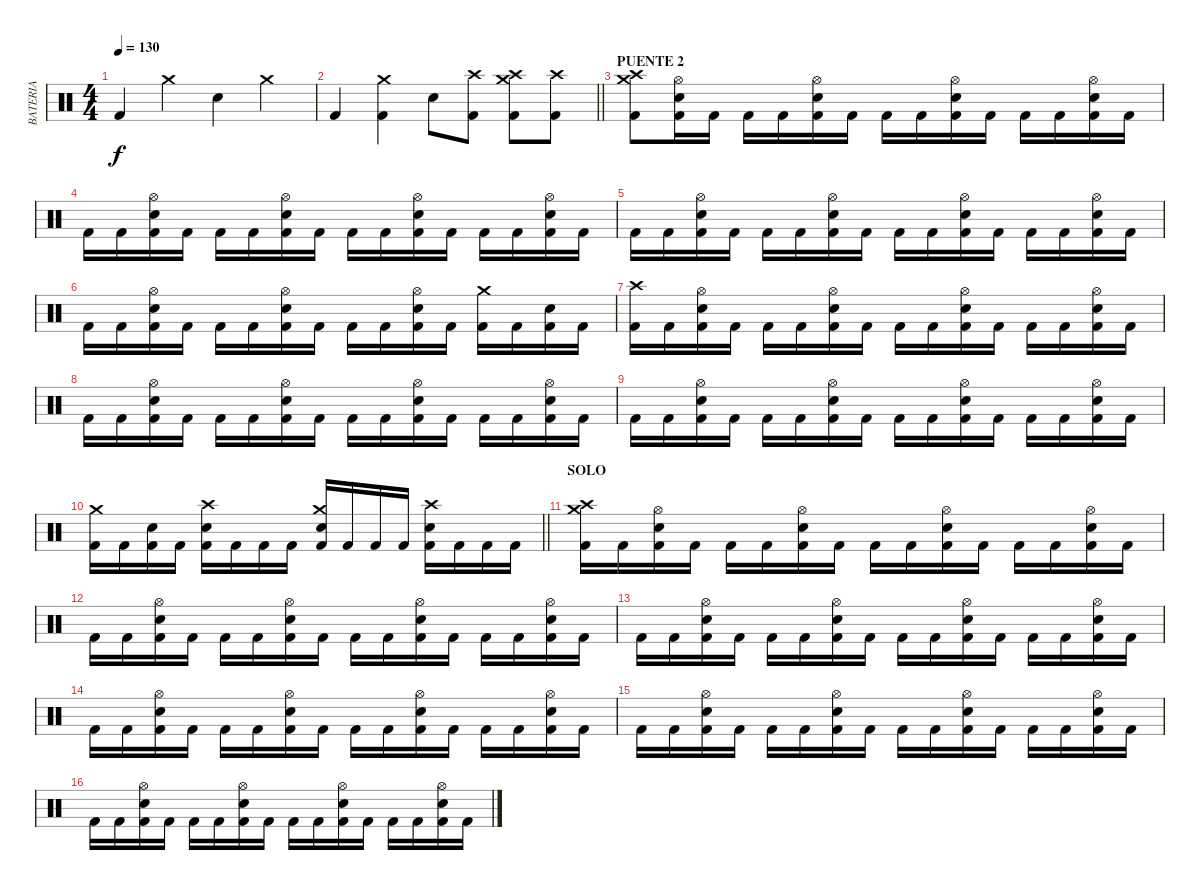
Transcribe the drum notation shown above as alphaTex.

\track ("BATERIA" "BATERIA") {instrument percussion}
\staff {score}
\articulation defaults
\ts (4 4)
\tempo 130
\clef neutral
\ks c "Kick (hit) 2".4{dy f} "Crash medium (hit)".4 "Electric Snare (hit)".4 "Crash medium (hit)".4
|
\barLineRight lightlight "Kick (hit) 2".4
("Kick (hit) 2" "Crash medium (hit)").4 "Electric Snare (hit)".8 ("Kick (hit) 2" "Crash high (hit)").8 ("Kick (hit) 2" "Crash high (hit)" "Crash medium (hit)").8 ("Kick (hit) 2" "Crash high (hit)").8 |
\section ("" "PUENTE 2")
("Kick (hit) 2" "Crash medium (hit)" "Crash high (hit)").8 ("Kick (hit) 2" "Electric Snare (hit)" "Hi-Hat (open)").16 "Kick (hit) 2".16 "Kick (hit) 2".16 "Kick (hit) 2".16 ("Kick (hit) 2" "Electric Snare (hit)" "Hi-Hat (open)").16 "Kick (hit) 2".16 "Kick (hit) 2".16 "Kick (hit) 2".16 ("Kick (hit) 2" "Electric Snare (hit)" "Hi-Hat (open)").16 "Kick (hit) 2".16 "Kick (hit) 2".16 "Kick (hit) 2".16 ("Kick (hit) 2" "Electric Snare (hit)" "Hi-Hat (open)").16 "Kick (hit) 2".16 |
"Kick (hit) 2".16 "Kick (hit) 2".16 ("Kick (hit) 2" "Electric Snare (hit)" "Hi-Hat (open)").16 "Kick (hit) 2".16 "Kick (hit) 2".16 "Kick (hit) 2".16 ("Kick (hit) 2" "Electric Snare (hit)" "Hi-Hat (open)").16 "Kick (hit) 2".16 "Kick (hit) 2".16 "Kick (hit) 2".16 ("Kick (hit) 2" "Electric Snare (hit)" "Hi-Hat (open)").16 "Kick (hit) 2".16 "Kick (hit) 2".16 "Kick (hit) 2".16 ("Kick (hit) 2" "Electric Snare (hit)" "Hi-Hat (open)").16 "Kick (hit) 2".16 |
"Kick (hit) 2".16 "Kick (hit) 2".16 ("Kick (hit) 2" "Electric Snare (hit)" "Hi-Hat (open)").16 "Kick (hit) 2".16 "Kick (hit) 2".16 "Kick (hit) 2".16 ("Kick (hit) 2" "Electric Snare (hit)" "Hi-Hat (open)").16 "Kick (hit) 2".16 "Kick (hit) 2".16 "Kick (hit) 2".16 ("Kick (hit) 2" "Electric Snare (hit)" "Hi-Hat (open)").16 "Kick (hit) 2".16 "Kick (hit) 2".16 "Kick (hit) 2".16 ("Kick (hit) 2" "Electric Snare (hit)" "Hi-Hat (open)").16 "Kick (hit) 2".16 |
"Kick (hit) 2".16 "Kick (hit) 2".16 ("Kick (hit) 2" "Electric Snare (hit)" "Hi-Hat (open)").16 "Kick (hit) 2".16 "Kick (hit) 2".16 "Kick (hit) 2".16 ("Kick (hit) 2" "Electric Snare (hit)" "Hi-Hat (open)").16 "Kick (hit) 2".16 "Kick (hit) 2".16 "Kick (hit) 2".16 ("Kick (hit) 2" "Electric Snare (hit)" "Hi-Hat (open)").16 "Kick (hit) 2".16 ("Kick (hit) 2" "Crash medium (hit)").16 "Kick (hit) 2".16 ("Kick (hit) 2" "Electric Snare (hit)").16 "Kick (hit) 2".16 |
("Kick (hit) 2" "Crash high (hit)").16 "Kick (hit) 2".16 ("Kick (hit) 2" "Electric Snare (hit)" "Hi-Hat (open)").16 "Kick (hit) 2".16 "Kick (hit) 2".16 "Kick (hit) 2".16 ("Kick (hit) 2" "Electric Snare (hit)" "Hi-Hat (open)").16 "Kick (hit) 2".16 "Kick (hit) 2".16 "Kick (hit) 2".16 ("Kick (hit) 2" "Electric Snare (hit)" "Hi-Hat (open)").16 "Kick (hit) 2".16 "Kick (hit) 2".16 "Kick (hit) 2".16 ("Kick (hit) 2" "Electric Snare (hit)" "Hi-Hat (open)").16 "Kick (hit) 2".16 |
"Kick (hit) 2".16 "Kick (hit) 2".16 ("Kick (hit) 2" "Electric Snare (hit)" "Hi-Hat (open)").16 "Kick (hit) 2".16 "Kick (hit) 2".16 "Kick (hit) 2".16 ("Kick (hit) 2" "Electric Snare (hit)" "Hi-Hat (open)").16 "Kick (hit) 2".16 "Kick (hit) 2".16 "Kick (hit) 2".16 ("Kick (hit) 2" "Electric Snare (hit)" "Hi-Hat (open)").16 "Kick (hit) 2".16 "Kick (hit) 2".16 "Kick (hit) 2".16 ("Kick (hit) 2" "Electric Snare (hit)" "Hi-Hat (open)").16 "Kick (hit) 2".16 |
"Kick (hit) 2".16 "Kick (hit) 2".16 ("Kick (hit) 2" "Electric Snare (hit)" "Hi-Hat (open)").16 "Kick (hit) 2".16 "Kick (hit) 2".16 "Kick (hit) 2".16 ("Kick (hit) 2" "Electric Snare (hit)" "Hi-Hat (open)").16 "Kick (hit) 2".16 "Kick (hit) 2".16 "Kick (hit) 2".16 ("Kick (hit) 2" "Electric Snare (hit)" "Hi-Hat (open)").16 "Kick (hit) 2".16 "Kick (hit) 2".16 "Kick (hit) 2".16 ("Kick (hit) 2" "Electric Snare (hit)" "Hi-Hat (open)").16 "Kick (hit) 2".16 |
\barLineRight lightlight
("Kick (hit) 2" "Crash medium (hit)").16 "Kick (hit) 2".16 ("Kick (hit) 2" "Electric Snare (hit)").16 "Kick (hit) 2".16 ("Kick (hit) 2" "Electric Snare (hit)" "Crash high (hit)").16 "Kick (hit) 2".16 "Kick (hit) 2".16 "Kick (hit) 2".16 ("Kick (hit) 2" "Electric Snare (hit)" "Crash medium (hit)").16 "Kick (hit) 2".16 "Kick (hit) 2".16 "Kick (hit) 2".16 ("Kick (hit) 2" "Electric Snare (hit)" "Crash high (hit)").16 "Kick (hit) 2".16 "Kick (hit) 2".16 "Kick (hit) 2".16 |
\section ("" "SOLO")
("Kick (hit) 2" "Crash high (hit)" "Crash medium (hit)").16 "Kick (hit) 2".16 ("Kick (hit) 2" "Electric Snare (hit)" "Hi-Hat (open)").16 "Kick (hit) 2".16 "Kick (hit) 2".16 "Kick (hit) 2".16 ("Kick (hit) 2" "Electric Snare (hit)" "Hi-Hat (open)").16 "Kick (hit) 2".16 "Kick (hit) 2".16 "Kick (hit) 2".16 ("Kick (hit) 2" "Electric Snare (hit)" "Hi-Hat (open)").16 "Kick (hit) 2".16 "Kick (hit) 2".16 "Kick (hit) 2".16 ("Kick (hit) 2" "Electric Snare (hit)" "Hi-Hat (open)").16 "Kick (hit) 2".16 |
"Kick (hit) 2".16 "Kick (hit) 2".16 ("Kick (hit) 2" "Electric Snare (hit)" "Hi-Hat (open)").16 "Kick (hit) 2".16 "Kick (hit) 2".16 "Kick (hit) 2".16 ("Kick (hit) 2" "Electric Snare (hit)" "Hi-Hat (open)").16 "Kick (hit) 2".16 "Kick (hit) 2".16 "Kick (hit) 2".16 ("Kick (hit) 2" "Electric Snare (hit)" "Hi-Hat (open)").16 "Kick (hit) 2".16 "Kick (hit) 2".16 "Kick (hit) 2".16 ("Kick (hit) 2" "Electric Snare (hit)" "Hi-Hat (open)").16 "Kick (hit) 2".16 |
"Kick (hit) 2".16 "Kick (hit) 2".16 ("Kick (hit) 2" "Electric Snare (hit)" "Hi-Hat (open)").16 "Kick (hit) 2".16 "Kick (hit) 2".16 "Kick (hit) 2".16 ("Kick (hit) 2" "Electric Snare (hit)" "Hi-Hat (open)").16 "Kick (hit) 2".16 "Kick (hit) 2".16 "Kick (hit) 2".16 ("Kick (hit) 2" "Electric Snare (hit)" "Hi-Hat (open)").16 "Kick (hit) 2".16 "Kick (hit) 2".16 "Kick (hit) 2".16 ("Kick (hit) 2" "Electric Snare (hit)" "Hi-Hat (open)").16 "Kick (hit) 2".16 |
"Kick (hit) 2".16 "Kick (hit) 2".16 ("Kick (hit) 2" "Electric Snare (hit)" "Hi-Hat (open)").16 "Kick (hit) 2".16 "Kick (hit) 2".16 "Kick (hit) 2".16 ("Kick (hit) 2" "Electric Snare (hit)" "Hi-Hat (open)").16 "Kick (hit) 2".16 "Kick (hit) 2".16 "Kick (hit) 2".16 ("Kick (hit) 2" "Electric Snare (hit)" "Hi-Hat (open)").16 "Kick (hit) 2".16 "Kick (hit) 2".16 "Kick (hit) 2".16 ("Kick (hit) 2" "Electric Snare (hit)" "Hi-Hat (open)").16 "Kick (hit) 2".16 |
"Kick (hit) 2".16 "Kick (hit) 2".16 ("Kick (hit) 2" "Electric Snare (hit)" "Hi-Hat (open)").16 "Kick (hit) 2".16 "Kick (hit) 2".16 "Kick (hit) 2".16 ("Kick (hit) 2" "Electric Snare (hit)" "Hi-Hat (open)").16 "Kick (hit) 2".16 "Kick (hit) 2".16 "Kick (hit) 2".16 ("Kick (hit) 2" "Electric Snare (hit)" "Hi-Hat (open)").16 "Kick (hit) 2".16 "Kick (hit) 2".16 "Kick (hit) 2".16 ("Kick (hit) 2" "Electric Snare (hit)" "Hi-Hat (open)").16 "Kick (hit) 2".16 |
"Kick (hit) 2".16 "Kick (hit) 2".16 ("Kick (hit) 2" "Electric Snare (hit)" "Hi-Hat (open)").16 "Kick (hit) 2".16 "Kick (hit) 2".16 "Kick (hit) 2".16 ("Kick (hit) 2" "Electric Snare (hit)" "Hi-Hat (open)").16 "Kick (hit) 2".16 "Kick (hit) 2".16 "Kick (hit) 2".16 ("Kick (hit) 2" "Electric Snare (hit)" "Hi-Hat (open)").16 "Kick (hit) 2".16 "Kick (hit) 2".16 "Kick (hit) 2".16 ("Kick (hit) 2" "Electric Snare (hit)" "Hi-Hat (open)").16 "Kick (hit) 2".16
